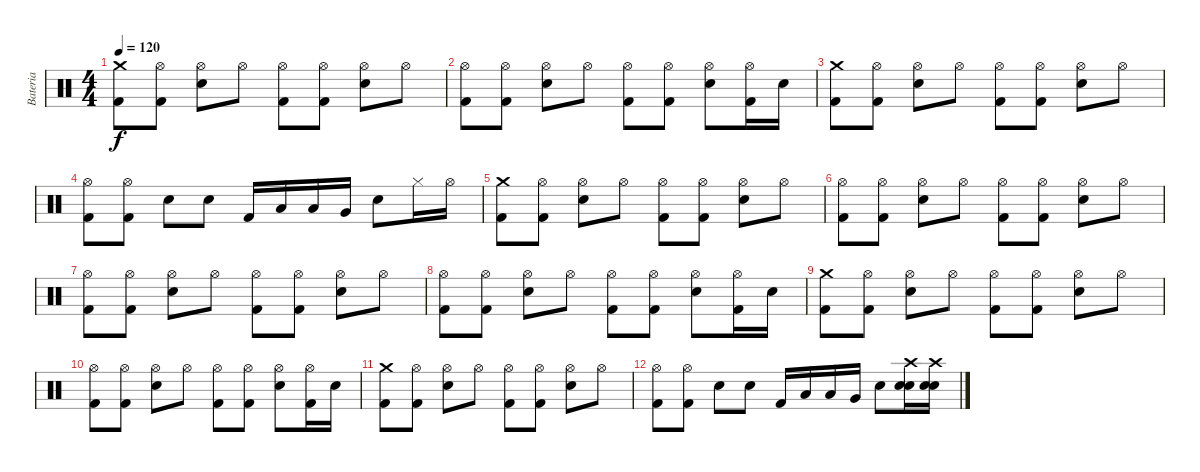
\track ("Bateria" "Bateria") {instrument percussion}
\staff {score}
\articulation defaults
\ts (4 4)
\tempo 120
\clef neutral
\ks c
("Crash medium (hit)" "Kick (hit) 2").8{dy f} ("Hi-Hat (open)" "Kick (hit) 2").8 ("Hi-Hat (open)" "Electric Snare (hit)").8 "Hi-Hat (open)".8 ("Hi-Hat (open)" "Kick (hit) 2").8 ("Hi-Hat (open)" "Kick (hit) 2").8 ("Hi-Hat (open)" "Electric Snare (hit)").8 "Hi-Hat (open)".8 |
("Hi-Hat (open)" "Kick (hit) 2").8 ("Hi-Hat (open)" "Kick (hit) 2").8 ("Hi-Hat (open)" "Electric Snare (hit)").8 "Hi-Hat (open)".8 ("Hi-Hat (open)" "Kick (hit) 2").8 ("Hi-Hat (open)" "Kick (hit) 2").8 ("Hi-Hat (open)" "Electric Snare (hit)").8 ("Hi-Hat (open)" "Kick (hit) 2").16 "Electric Snare (hit)".16 |
("Crash medium (hit)" "Kick (hit) 2").8 ("Hi-Hat (open)" "Kick (hit) 2").8 ("Hi-Hat (open)" "Electric Snare (hit)").8 "Hi-Hat (open)".8 ("Hi-Hat (open)" "Kick (hit) 2").8 ("Hi-Hat (open)" "Kick (hit) 2").8 ("Hi-Hat (open)" "Electric Snare (hit)").8 "Hi-Hat (open)".8 |
("Hi-Hat (open)" "Kick (hit) 2").8 ("Hi-Hat (open)" "Kick (hit) 2").8 "Electric Snare (hit)".8 "Electric Snare (hit)".8 "Kick (hit) 2".16 "Low Tom (hit)".16 "Low Tom (hit)".16 "Very Low Tom (hit)".16 "Electric Snare (hit)".8 "Hi-Hat (closed)".16 "Hi-Hat (open)".16 |
("Crash medium (hit)" "Kick (hit) 2").8 ("Hi-Hat (open)" "Kick (hit) 2").8 ("Hi-Hat (open)" "Electric Snare (hit)").8 "Hi-Hat (open)".8 ("Hi-Hat (open)" "Kick (hit) 2").8 ("Hi-Hat (open)" "Kick (hit) 2").8 ("Hi-Hat (open)" "Electric Snare (hit)").8 "Hi-Hat (open)".8 |
("Hi-Hat (open)" "Kick (hit) 2").8 ("Hi-Hat (open)" "Kick (hit) 2").8 ("Hi-Hat (open)" "Electric Snare (hit)").8 "Hi-Hat (open)".8 ("Hi-Hat (open)" "Kick (hit) 2").8 ("Hi-Hat (open)" "Kick (hit) 2").8 ("Hi-Hat (open)" "Electric Snare (hit)").8 "Hi-Hat (open)".8 |
("Hi-Hat (open)" "Kick (hit) 2").8 ("Hi-Hat (open)" "Kick (hit) 2").8 ("Hi-Hat (open)" "Electric Snare (hit)").8 "Hi-Hat (open)".8 ("Hi-Hat (open)" "Kick (hit) 2").8 ("Hi-Hat (open)" "Kick (hit) 2").8 ("Hi-Hat (open)" "Electric Snare (hit)").8 "Hi-Hat (open)".8 |
("Hi-Hat (open)" "Kick (hit) 2").8 ("Hi-Hat (open)" "Kick (hit) 2").8 ("Hi-Hat (open)" "Electric Snare (hit)").8 "Hi-Hat (open)".8 ("Hi-Hat (open)" "Kick (hit) 2").8 ("Hi-Hat (open)" "Kick (hit) 2").8 ("Hi-Hat (open)" "Electric Snare (hit)").8 ("Hi-Hat (open)" "Kick (hit) 2").16 "Electric Snare (hit)".16 |
("Crash medium (hit)" "Kick (hit) 2").8 ("Hi-Hat (open)" "Kick (hit) 2").8 ("Hi-Hat (open)" "Electric Snare (hit)").8 "Hi-Hat (open)".8 ("Hi-Hat (open)" "Kick (hit) 2").8 ("Hi-Hat (open)" "Kick (hit) 2").8 ("Hi-Hat (open)" "Electric Snare (hit)").8 "Hi-Hat (open)".8 |
("Hi-Hat (open)" "Kick (hit) 2").8 ("Hi-Hat (open)" "Kick (hit) 2").8 ("Hi-Hat (open)" "Electric Snare (hit)").8 "Hi-Hat (open)".8 ("Hi-Hat (open)" "Kick (hit) 2").8 ("Hi-Hat (open)" "Kick (hit) 2").8 ("Hi-Hat (open)" "Electric Snare (hit)").8 ("Hi-Hat (open)" "Kick (hit) 2").16 "Electric Snare (hit)".16 |
("Crash medium (hit)" "Kick (hit) 2").8 ("Hi-Hat (open)" "Kick (hit) 2").8 ("Hi-Hat (open)" "Electric Snare (hit)").8 "Hi-Hat (open)".8 ("Hi-Hat (open)" "Kick (hit) 2").8 ("Hi-Hat (open)" "Kick (hit) 2").8 ("Hi-Hat (open)" "Electric Snare (hit)").8 "Hi-Hat (open)".8 |
("Hi-Hat (open)" "Kick (hit) 2").8 ("Hi-Hat (open)" "Kick (hit) 2").8 "Electric Snare (hit)".8 "Electric Snare (hit)".8 "Kick (hit) 2".16 "Low Tom (hit)".16 "Low Tom (hit)".16 "Very Low Tom (hit)".16 "Electric Snare (hit)".8 ("Crash high (hit)" "Electric Snare (hit)" "Electric Snare (hit)").16 ("Crash high (hit)" "Electric Snare (hit)" "Electric Snare (hit)").16
